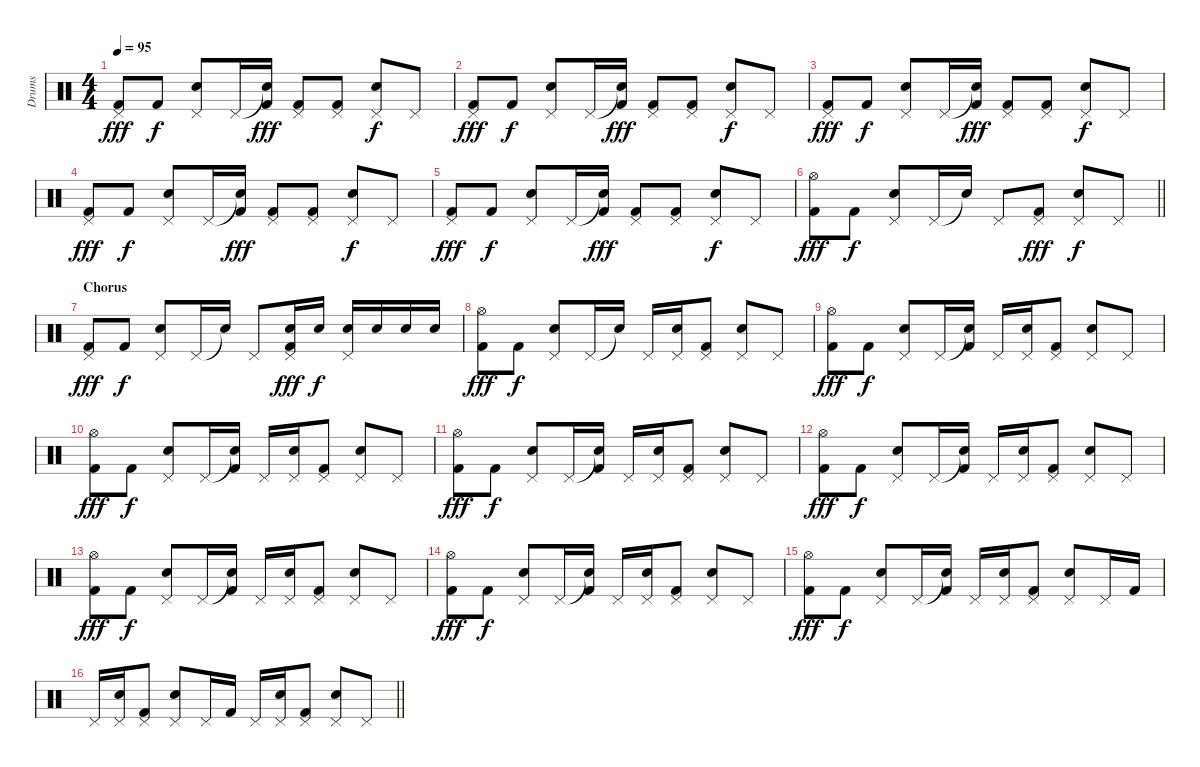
\track ("Drums" "Drums") {instrument percussion}
\staff {score}
\articulation defaults
\ts (4 4)
\tempo 95
\clef neutral
\ks c
("Pedal Hi-Hat (hit)" "Kick (hit) 2").8{dy fff} "Kick (hit) 2".8{dy f} ("Pedal Hi-Hat (hit)" "Snare (hit) 2").8 "Pedal Hi-Hat (hit)".16 ("Snare (hit)"{t} "Kick (hit) 2").16{dy fff} ("Pedal Hi-Hat (hit)" "Kick (hit) 2").8 ("Pedal Hi-Hat (hit)" "Kick (hit) 2").8 ("Pedal Hi-Hat (hit)" "Snare (hit) 2").8{dy f} "Pedal Hi-Hat (hit)".8 |
("Pedal Hi-Hat (hit)" "Kick (hit) 2").8{dy fff} "Kick (hit) 2".8{dy f} ("Pedal Hi-Hat (hit)" "Snare (hit) 2").8 "Pedal Hi-Hat (hit)".16 ("Snare (hit)"{t} "Kick (hit) 2").16{dy fff} ("Pedal Hi-Hat (hit)" "Kick (hit) 2").8 ("Pedal Hi-Hat (hit)" "Kick (hit) 2").8 ("Pedal Hi-Hat (hit)" "Snare (hit) 2").8{dy f} "Pedal Hi-Hat (hit)".8 |
("Pedal Hi-Hat (hit)" "Kick (hit) 2").8{dy fff} "Kick (hit) 2".8{dy f} ("Pedal Hi-Hat (hit)" "Snare (hit) 2").8 "Pedal Hi-Hat (hit)".16 ("Snare (hit)"{t} "Kick (hit) 2").16{dy fff} ("Pedal Hi-Hat (hit)" "Kick (hit) 2").8 ("Pedal Hi-Hat (hit)" "Kick (hit) 2").8 ("Pedal Hi-Hat (hit)" "Snare (hit) 2").8{dy f} "Pedal Hi-Hat (hit)".8 |
("Pedal Hi-Hat (hit)" "Kick (hit) 2").8{dy fff} "Kick (hit) 2".8{dy f} ("Pedal Hi-Hat (hit)" "Snare (hit) 2").8 "Pedal Hi-Hat (hit)".16 ("Snare (hit)"{t} "Kick (hit) 2").16{dy fff} ("Pedal Hi-Hat (hit)" "Kick (hit) 2").8 ("Pedal Hi-Hat (hit)" "Kick (hit) 2").8 ("Pedal Hi-Hat (hit)" "Snare (hit) 2").8{dy f} "Pedal Hi-Hat (hit)".8 |
("Pedal Hi-Hat (hit)" "Kick (hit) 2").8{dy fff} "Kick (hit) 2".8{dy f} ("Pedal Hi-Hat (hit)" "Snare (hit) 2").8 "Pedal Hi-Hat (hit)".16 ("Snare (hit)"{t} "Kick (hit) 2").16{dy fff} ("Pedal Hi-Hat (hit)" "Kick (hit) 2").8 ("Pedal Hi-Hat (hit)" "Kick (hit) 2").8 ("Pedal Hi-Hat (hit)" "Snare (hit) 2").8{dy f} "Pedal Hi-Hat (hit)".8 |
\barLineRight lightlight
("Hi-Hat (open)" "Kick (hit) 2").8{dy fff} "Kick (hit) 2".8{dy f} ("Pedal Hi-Hat (hit)" "Snare (hit) 2").8 "Pedal Hi-Hat (hit)".16 "Snare (hit)"{t}.16 "Pedal Hi-Hat (hit)".8 ("Pedal Hi-Hat (hit)" "Kick (hit) 2").8{dy fff} ("Pedal Hi-Hat (hit)" "Snare (hit) 2").8{dy f} "Pedal Hi-Hat (hit)".8 |
\section ("" "Chorus")
("Pedal Hi-Hat (hit)" "Kick (hit) 2").8{dy fff} "Kick (hit) 2".8{dy f} ("Pedal Hi-Hat (hit)" "Snare (hit) 2").8 "Pedal Hi-Hat (hit)".16 "Snare (hit)"{t}.16 "Pedal Hi-Hat (hit)".8 ("Pedal Hi-Hat (hit)" "Snare (hit) 2" "Kick (hit) 2").16{dy fff} "Snare (hit) 2".16{dy f} ("Pedal Hi-Hat (hit)" "Snare (hit) 2").16 "Snare (hit) 2".16 "Snare (hit) 2".16 "Snare (hit) 2".16 |
("Hi-Hat (open)" "Kick (hit) 2").8{dy fff} "Kick (hit) 2".8{dy f} ("Pedal Hi-Hat (hit)" "Snare (hit) 2").8 "Pedal Hi-Hat (hit)".16 "Snare (hit)"{t}.16 "Pedal Hi-Hat (hit)".16 ("Pedal Hi-Hat (hit)" "Snare (hit) 2").16 ("Pedal Hi-Hat (hit)" "Kick (hit) 2").8 ("Pedal Hi-Hat (hit)" "Snare (hit) 2").8 "Pedal Hi-Hat (hit)".8 |
("Hi-Hat (open)" "Kick (hit) 2").8{dy fff} "Kick (hit) 2".8{dy f} ("Pedal Hi-Hat (hit)" "Snare (hit) 2").8 "Pedal Hi-Hat (hit)".16 ("Snare (hit)"{t} "Kick (hit) 2").16 "Pedal Hi-Hat (hit)".16 ("Pedal Hi-Hat (hit)" "Snare (hit) 2").16 ("Pedal Hi-Hat (hit)" "Kick (hit) 2").8 ("Pedal Hi-Hat (hit)" "Snare (hit) 2").8 "Pedal Hi-Hat (hit)".8 |
("Hi-Hat (open)" "Kick (hit) 2").8{dy fff} "Kick (hit) 2".8{dy f} ("Pedal Hi-Hat (hit)" "Snare (hit) 2").8 "Pedal Hi-Hat (hit)".16 ("Snare (hit)"{t} "Kick (hit) 2").16 "Pedal Hi-Hat (hit)".16 ("Pedal Hi-Hat (hit)" "Snare (hit) 2").16 ("Pedal Hi-Hat (hit)" "Kick (hit) 2").8 ("Pedal Hi-Hat (hit)" "Snare (hit) 2").8 "Pedal Hi-Hat (hit)".8 |
("Hi-Hat (open)" "Kick (hit) 2").8{dy fff} "Kick (hit) 2".8{dy f} ("Pedal Hi-Hat (hit)" "Snare (hit) 2").8 "Pedal Hi-Hat (hit)".16 ("Snare (hit)"{t} "Kick (hit) 2").16 "Pedal Hi-Hat (hit)".16 ("Pedal Hi-Hat (hit)" "Snare (hit) 2").16 ("Pedal Hi-Hat (hit)" "Kick (hit) 2").8 ("Pedal Hi-Hat (hit)" "Snare (hit) 2").8 "Pedal Hi-Hat (hit)".8 |
("Hi-Hat (open)" "Kick (hit) 2").8{dy fff} "Kick (hit) 2".8{dy f} ("Pedal Hi-Hat (hit)" "Snare (hit) 2").8 "Pedal Hi-Hat (hit)".16 ("Snare (hit)"{t} "Kick (hit) 2").16 "Pedal Hi-Hat (hit)".16 ("Pedal Hi-Hat (hit)" "Snare (hit) 2").16 ("Pedal Hi-Hat (hit)" "Kick (hit) 2").8 ("Pedal Hi-Hat (hit)" "Snare (hit) 2").8 "Pedal Hi-Hat (hit)".8 |
("Hi-Hat (open)" "Kick (hit) 2").8{dy fff} "Kick (hit) 2".8{dy f} ("Pedal Hi-Hat (hit)" "Snare (hit) 2").8 "Pedal Hi-Hat (hit)".16 ("Snare (hit)"{t} "Kick (hit) 2").16 "Pedal Hi-Hat (hit)".16 ("Pedal Hi-Hat (hit)" "Snare (hit) 2").16 ("Pedal Hi-Hat (hit)" "Kick (hit) 2").8 ("Pedal Hi-Hat (hit)" "Snare (hit) 2").8 "Pedal Hi-Hat (hit)".8 |
("Hi-Hat (open)" "Kick (hit) 2").8{dy fff} "Kick (hit) 2".8{dy f} ("Pedal Hi-Hat (hit)" "Snare (hit) 2").8 "Pedal Hi-Hat (hit)".16 ("Snare (hit)"{t} "Kick (hit) 2").16 "Pedal Hi-Hat (hit)".16 ("Pedal Hi-Hat (hit)" "Snare (hit) 2").16 ("Pedal Hi-Hat (hit)" "Kick (hit) 2").8 ("Pedal Hi-Hat (hit)" "Snare (hit) 2").8 "Pedal Hi-Hat (hit)".8 |
("Hi-Hat (open)" "Kick (hit) 2").8{dy fff} "Kick (hit) 2".8{dy f} ("Pedal Hi-Hat (hit)" "Snare (hit) 2").8 "Pedal Hi-Hat (hit)".16 ("Snare (hit)"{t} "Kick (hit) 2").16 "Pedal Hi-Hat (hit)".16 ("Pedal Hi-Hat (hit)" "Snare (hit) 2").16 ("Pedal Hi-Hat (hit)" "Kick (hit) 2").8 ("Pedal Hi-Hat (hit)" "Snare (hit) 2").8 "Pedal Hi-Hat (hit)".16 "Kick (hit) 2".16 |
\barLineRight lightlight "Pedal Hi-Hat (hit)".16
("Pedal Hi-Hat (hit)" "Snare (hit) 2").16 ("Pedal Hi-Hat (hit)" "Kick (hit) 2").8 ("Pedal Hi-Hat (hit)" "Snare (hit) 2").8 "Pedal Hi-Hat (hit)".16 "Kick (hit) 2".16 "Pedal Hi-Hat (hit)".16 ("Pedal Hi-Hat (hit)" "Snare (hit) 2").16 ("Pedal Hi-Hat (hit)" "Kick (hit) 2").8 ("Pedal Hi-Hat (hit)" "Snare (hit) 2").8 "Pedal Hi-Hat (hit)".8
